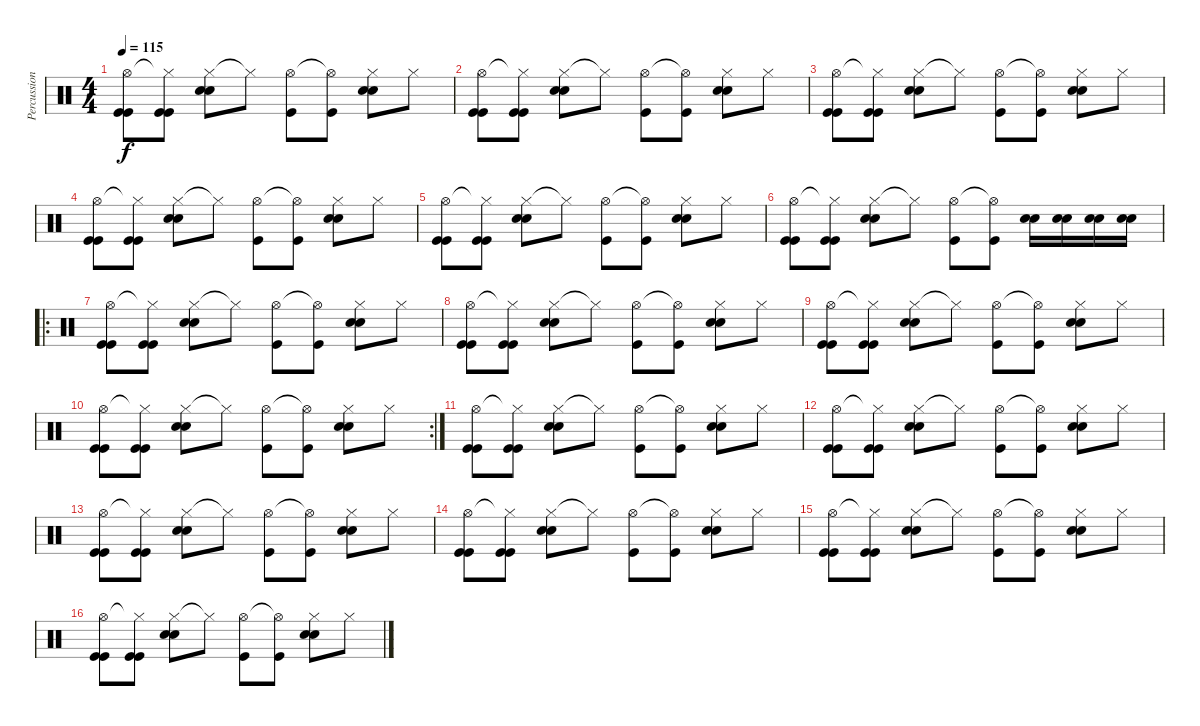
\track ("Percussions" "Percussion") {instrument percussion}
\staff {score}
\articulation defaults
\ts (4 4)
\tempo 115
\clef neutral
\ks c
("Hi-Hat (open)" "Kick (hit)" "Kick (hit)").8{dy f} ("Hi-Hat (closed)"{t} "Kick (hit)" "Kick (hit)").8 ("Hi-Hat (closed)" "Snare (hit) 2" "Snare (hit) 2").8 "Hi-Hat (closed)"{t}.8 ("Hi-Hat (open)" "Kick (hit)").8 ("Hi-Hat (open)"{t} "Kick (hit)").8 ("Hi-Hat (closed)" "Snare (hit) 2" "Snare (hit) 2").8 "Hi-Hat (closed)".8 |
("Hi-Hat (open)" "Kick (hit)" "Kick (hit)").8 ("Hi-Hat (closed)"{t} "Kick (hit)" "Kick (hit)").8 ("Hi-Hat (closed)" "Snare (hit) 2" "Snare (hit) 2").8 "Hi-Hat (closed)"{t}.8 ("Hi-Hat (open)" "Kick (hit)").8 ("Hi-Hat (open)"{t} "Kick (hit)").8 ("Hi-Hat (closed)" "Snare (hit) 2" "Snare (hit) 2").8 "Hi-Hat (closed)".8 |
("Hi-Hat (open)" "Kick (hit)" "Kick (hit)").8 ("Hi-Hat (closed)"{t} "Kick (hit)" "Kick (hit)").8 ("Hi-Hat (closed)" "Snare (hit) 2" "Snare (hit) 2").8 "Hi-Hat (closed)"{t}.8 ("Hi-Hat (open)" "Kick (hit)").8 ("Hi-Hat (open)"{t} "Kick (hit)").8 ("Hi-Hat (closed)" "Snare (hit) 2" "Snare (hit) 2").8 "Hi-Hat (closed)".8 |
("Hi-Hat (open)" "Kick (hit)" "Kick (hit)").8 ("Hi-Hat (closed)"{t} "Kick (hit)" "Kick (hit)").8 ("Hi-Hat (closed)" "Snare (hit) 2" "Snare (hit) 2").8 "Hi-Hat (closed)"{t}.8 ("Hi-Hat (open)" "Kick (hit)").8 ("Hi-Hat (open)"{t} "Kick (hit)").8 ("Hi-Hat (closed)" "Snare (hit) 2" "Snare (hit) 2").8 "Hi-Hat (closed)".8 |
("Hi-Hat (open)" "Kick (hit)" "Kick (hit)").8 ("Hi-Hat (closed)"{t} "Kick (hit)" "Kick (hit)").8 ("Hi-Hat (closed)" "Snare (hit) 2" "Snare (hit) 2").8 "Hi-Hat (closed)"{t}.8 ("Hi-Hat (open)" "Kick (hit)").8 ("Hi-Hat (open)"{t} "Kick (hit)").8 ("Hi-Hat (closed)" "Snare (hit) 2" "Snare (hit) 2").8 "Hi-Hat (closed)".8 |
("Hi-Hat (open)" "Kick (hit)" "Kick (hit)").8 ("Hi-Hat (closed)"{t} "Kick (hit)" "Kick (hit)").8 ("Hi-Hat (closed)" "Snare (hit) 2" "Snare (hit) 2").8 "Hi-Hat (closed)"{t}.8 ("Hi-Hat (open)" "Kick (hit)").8 ("Hi-Hat (open)"{t} "Kick (hit)").8 ("Electric Snare (hit)" "Electric Snare (hit)").16 ("Electric Snare (hit)" "Electric Snare (hit)").16 ("Electric Snare (hit)" "Electric Snare (hit)").16 ("Electric Snare (hit)" "Electric Snare (hit)").16 |
\ro
("Hi-Hat (open)" "Kick (hit)" "Kick (hit)").8 ("Hi-Hat (closed)"{t} "Kick (hit)" "Kick (hit)").8 ("Hi-Hat (closed)" "Snare (hit) 2" "Snare (hit) 2").8 "Hi-Hat (closed)"{t}.8 ("Hi-Hat (open)" "Kick (hit)").8 ("Hi-Hat (open)"{t} "Kick (hit)").8 ("Hi-Hat (closed)" "Snare (hit) 2" "Snare (hit) 2").8 "Hi-Hat (closed)".8 |
("Hi-Hat (open)" "Kick (hit)" "Kick (hit)").8 ("Hi-Hat (closed)"{t} "Kick (hit)" "Kick (hit)").8 ("Hi-Hat (closed)" "Snare (hit) 2" "Snare (hit) 2").8 "Hi-Hat (closed)"{t}.8 ("Hi-Hat (open)" "Kick (hit)").8 ("Hi-Hat (open)"{t} "Kick (hit)").8 ("Hi-Hat (closed)" "Snare (hit) 2" "Snare (hit) 2").8 "Hi-Hat (closed)".8 |
("Hi-Hat (open)" "Kick (hit)" "Kick (hit)").8 ("Hi-Hat (closed)"{t} "Kick (hit)" "Kick (hit)").8 ("Hi-Hat (closed)" "Snare (hit) 2" "Snare (hit) 2").8 "Hi-Hat (closed)"{t}.8 ("Hi-Hat (open)" "Kick (hit)").8 ("Hi-Hat (open)"{t} "Kick (hit)").8 ("Hi-Hat (closed)" "Snare (hit) 2" "Snare (hit) 2").8 "Hi-Hat (closed)".8 |
\rc 2
("Hi-Hat (open)" "Kick (hit)" "Kick (hit)").8 ("Hi-Hat (closed)"{t} "Kick (hit)" "Kick (hit)").8 ("Hi-Hat (closed)" "Snare (hit) 2" "Snare (hit) 2").8 "Hi-Hat (closed)"{t}.8 ("Hi-Hat (open)" "Kick (hit)").8 ("Hi-Hat (open)"{t} "Kick (hit)").8 ("Hi-Hat (closed)" "Snare (hit) 2" "Snare (hit) 2").8 "Hi-Hat (closed)".8 |
("Hi-Hat (open)" "Kick (hit)" "Kick (hit)").8 ("Hi-Hat (closed)"{t} "Kick (hit)" "Kick (hit)").8 ("Hi-Hat (closed)" "Snare (hit) 2" "Snare (hit) 2").8 "Hi-Hat (closed)"{t}.8 ("Hi-Hat (open)" "Kick (hit)").8 ("Hi-Hat (open)"{t} "Kick (hit)").8 ("Hi-Hat (closed)" "Snare (hit) 2" "Snare (hit) 2").8 "Hi-Hat (closed)".8 |
("Hi-Hat (open)" "Kick (hit)" "Kick (hit)").8 ("Hi-Hat (closed)"{t} "Kick (hit)" "Kick (hit)").8 ("Hi-Hat (closed)" "Snare (hit) 2" "Snare (hit) 2").8 "Hi-Hat (closed)"{t}.8 ("Hi-Hat (open)" "Kick (hit)").8 ("Hi-Hat (open)"{t} "Kick (hit)").8 ("Hi-Hat (closed)" "Snare (hit) 2" "Snare (hit) 2").8 "Hi-Hat (closed)".8 |
("Hi-Hat (open)" "Kick (hit)" "Kick (hit)").8 ("Hi-Hat (closed)"{t} "Kick (hit)" "Kick (hit)").8 ("Hi-Hat (closed)" "Snare (hit) 2" "Snare (hit) 2").8 "Hi-Hat (closed)"{t}.8 ("Hi-Hat (open)" "Kick (hit)").8 ("Hi-Hat (open)"{t} "Kick (hit)").8 ("Hi-Hat (closed)" "Snare (hit) 2" "Snare (hit) 2").8 "Hi-Hat (closed)".8 |
("Hi-Hat (open)" "Kick (hit)" "Kick (hit)").8 ("Hi-Hat (closed)"{t} "Kick (hit)" "Kick (hit)").8 ("Hi-Hat (closed)" "Snare (hit) 2" "Snare (hit) 2").8 "Hi-Hat (closed)"{t}.8 ("Hi-Hat (open)" "Kick (hit)").8 ("Hi-Hat (open)"{t} "Kick (hit)").8 ("Hi-Hat (closed)" "Snare (hit) 2" "Snare (hit) 2").8 "Hi-Hat (closed)".8 |
("Hi-Hat (open)" "Kick (hit)" "Kick (hit)").8 ("Hi-Hat (closed)"{t} "Kick (hit)" "Kick (hit)").8 ("Hi-Hat (closed)" "Snare (hit) 2" "Snare (hit) 2").8 "Hi-Hat (closed)"{t}.8 ("Hi-Hat (open)" "Kick (hit)").8 ("Hi-Hat (open)"{t} "Kick (hit)").8 ("Hi-Hat (closed)" "Snare (hit) 2" "Snare (hit) 2").8 "Hi-Hat (closed)".8 |
("Hi-Hat (open)" "Kick (hit)" "Kick (hit)").8 ("Hi-Hat (closed)"{t} "Kick (hit)" "Kick (hit)").8 ("Hi-Hat (closed)" "Snare (hit) 2" "Snare (hit) 2").8 "Hi-Hat (closed)"{t}.8 ("Hi-Hat (open)" "Kick (hit)").8 ("Hi-Hat (open)"{t} "Kick (hit)").8 ("Hi-Hat (closed)" "Snare (hit) 2" "Snare (hit) 2").8 "Hi-Hat (closed)".8
